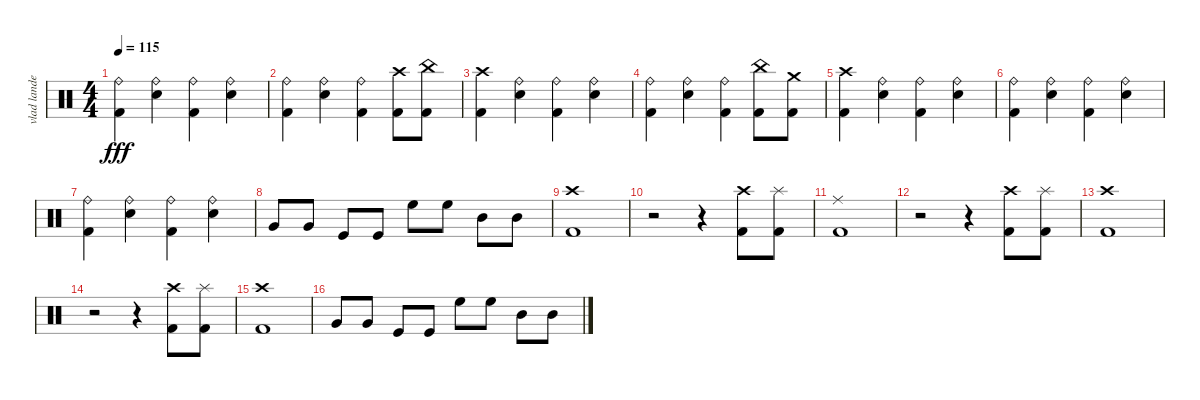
\track ("vlad landeros" "vlad lande") {instrument percussion}
\staff {score}
\articulation defaults
\ts (4 4)
\tempo 115
\clef neutral
\ks c
("Ride (bell)" "Kick (hit) 2").4{dy fff} ("Ride (bell)" "Electric Snare (hit)").4 ("Ride (bell)" "Kick (hit) 2").4 ("Ride (bell)" "Electric Snare (hit)").4 |
("Ride (bell)" "Kick (hit) 2").4 ("Ride (bell)" "Electric Snare (hit)").4 ("Ride (bell)" "Kick (hit) 2").4 ("Crash high (hit)" "Kick (hit) 2").8 ("China (hit)" "Kick (hit) 2").8 |
("Crash high (hit)" "Kick (hit) 2").4 ("Ride (bell)" "Electric Snare (hit)").4 ("Ride (bell)" "Kick (hit) 2").4 ("Ride (bell)" "Electric Snare (hit)").4 |
("Ride (bell)" "Kick (hit) 2").4 ("Ride (bell)" "Electric Snare (hit)").4 ("Ride (bell)" "Kick (hit) 2").4 ("China (hit)" "Kick (hit) 2").8 ("Crash medium (hit)" "Kick (hit) 2").8 |
("Crash high (hit)" "Kick (hit) 2").4 ("Ride (bell)" "Electric Snare (hit)").4 ("Ride (bell)" "Kick (hit) 2").4 ("Ride (bell)" "Electric Snare (hit)").4 |
("Ride (bell)" "Kick (hit) 2").4 ("Ride (bell)" "Electric Snare (hit)").4 ("Ride (bell)" "Kick (hit) 2").4 ("Ride (bell)" "Electric Snare (hit)").4 |
("Ride (bell)" "Kick (hit) 2").4 ("Ride (bell)" "Electric Snare (hit)").4 ("Ride (bell)" "Kick (hit) 2").4 ("Ride (bell)" "Electric Snare (hit)").4 |
"Very Low Tom (hit)".8 "Very Low Tom (hit)".8 "Kick (hit)".8 "Kick (hit)".8 "High Floor Tom (hit)".8 "High Floor Tom (hit)".8 "Mid Tom (hit)".8 "Mid Tom (hit)".8 |
("Crash high (hit)" "Kick (hit) 2").1 |
r.2 r.4 ("Crash high (hit)" "Kick (hit) 2").8 ("Splash (hit)" "Kick (hit) 2").8 |
("Ride (middle)" "Kick (hit) 2").1 |
r.2 r.4 ("Crash high (hit)" "Kick (hit) 2").8 ("Splash (hit)" "Kick (hit) 2").8 |
("Crash high (hit)" "Kick (hit) 2").1 |
r.2 r.4 ("Crash high (hit)" "Kick (hit) 2").8 ("Splash (hit)" "Kick (hit) 2").8 |
("Crash high (hit)" "Kick (hit) 2").1 |
"Very Low Tom (hit)".8 "Very Low Tom (hit)".8 "Kick (hit)".8 "Kick (hit)".8 "High Floor Tom (hit)".8 "High Floor Tom (hit)".8 "Mid Tom (hit)".8 "Mid Tom (hit)".8
